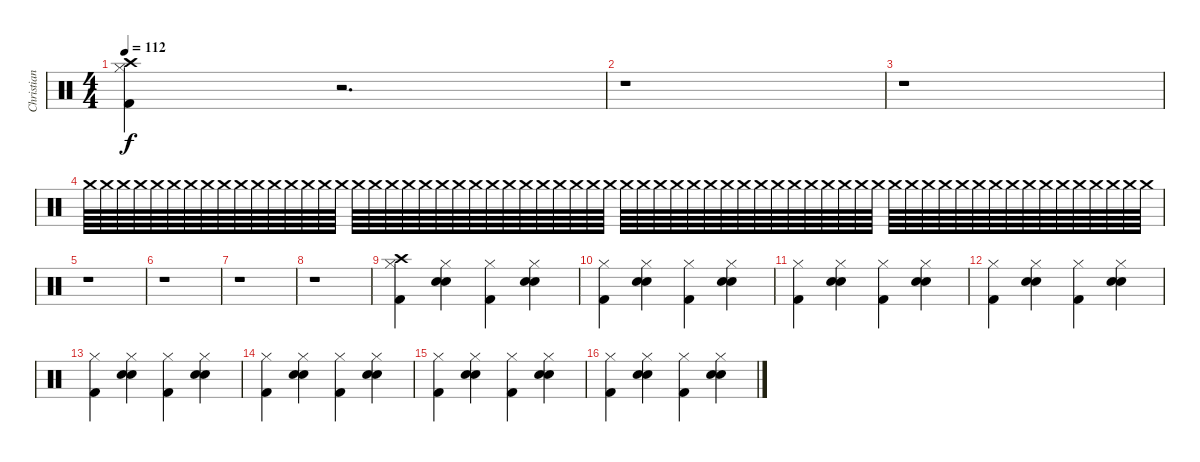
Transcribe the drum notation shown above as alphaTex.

\track ("Christian Paredes" "Christian ") {instrument percussion}
\staff {score}
\articulation defaults
\ts (4 4)
\tempo 112
\clef neutral
\ks c
("Hi-Hat (closed)" "Crash high (hit)" "Kick (hit) 2").4{dy f volume 13} r.2{d} |
r.1 |
r.1{volume 0} |
"Crash medium (hit)".64{volume 13} "Crash medium (hit)".64 "Crash medium (hit)".64 "Crash medium (hit)".64 "Crash medium (hit)".64 "Crash medium (hit)".64 "Crash medium (hit)".64 "Crash medium (hit)".64 "Crash medium (hit)".64 "Crash medium (hit)".64 "Crash medium (hit)".64 "Crash medium (hit)".64 "Crash medium (hit)".64 "Crash medium (hit)".64 "Crash medium (hit)".64 "Crash medium (hit)".64 "Crash medium (hit)".64 "Crash medium (hit)".64 "Crash medium (hit)".64 "Crash medium (hit)".64 "Crash medium (hit)".64 "Crash medium (hit)".64 "Crash medium (hit)".64 "Crash medium (hit)".64 "Crash medium (hit)".64 "Crash medium (hit)".64 "Crash medium (hit)".64 "Crash medium (hit)".64 "Crash medium (hit)".64 "Crash medium (hit)".64 "Crash medium (hit)".64 "Crash medium (hit)".64 "Crash medium (hit)".64 "Crash medium (hit)".64 "Crash medium (hit)".64 "Crash medium (hit)".64 "Crash medium (hit)".64 "Crash medium (hit)".64 "Crash medium (hit)".64 "Crash medium (hit)".64 "Crash medium (hit)".64 "Crash medium (hit)".64 "Crash medium (hit)".64 "Crash medium (hit)".64 "Crash medium (hit)".64 "Crash medium (hit)".64 "Crash medium (hit)".64 "Crash medium (hit)".64 "Crash medium (hit)".64 "Crash medium (hit)".64 "Crash medium (hit)".64 "Crash medium (hit)".64 "Crash medium (hit)".64 "Crash medium (hit)".64 "Crash medium (hit)".64 "Crash medium (hit)".64 "Crash medium (hit)".64 "Crash medium (hit)".64 "Crash medium (hit)".64 "Crash medium (hit)".64 "Crash medium (hit)".64 "Crash medium (hit)".64 "Crash medium (hit)".64 "Crash medium (hit)".64 |
r.1 |
r.1 |
r.1 |
r.1 |
("Hi-Hat (closed)" "Crash high (hit)" "Kick (hit) 2").4{volume 13} ("Hi-Hat (closed)" "Electric Snare (hit)" "Hand Clap (hit)").4 ("Hi-Hat (closed)" "Kick (hit) 2").4 ("Hi-Hat (closed)" "Electric Snare (hit)" "Hand Clap (hit)").4 |
("Hi-Hat (closed)" "Kick (hit) 2").4 ("Hi-Hat (closed)" "Electric Snare (hit)" "Hand Clap (hit)").4 ("Hi-Hat (closed)" "Kick (hit) 2").4 ("Hi-Hat (closed)" "Electric Snare (hit)" "Hand Clap (hit)").4 |
("Hi-Hat (closed)" "Kick (hit) 2").4 ("Hi-Hat (closed)" "Electric Snare (hit)" "Hand Clap (hit)").4 ("Hi-Hat (closed)" "Kick (hit) 2").4 ("Hi-Hat (closed)" "Electric Snare (hit)" "Hand Clap (hit)").4 |
("Hi-Hat (closed)" "Kick (hit) 2").4 ("Hi-Hat (closed)" "Electric Snare (hit)" "Hand Clap (hit)").4 ("Hi-Hat (closed)" "Kick (hit) 2").4 ("Hi-Hat (closed)" "Electric Snare (hit)" "Hand Clap (hit)").4 |
("Hi-Hat (closed)" "Kick (hit) 2").4 ("Hi-Hat (closed)" "Electric Snare (hit)" "Hand Clap (hit)").4 ("Hi-Hat (closed)" "Kick (hit) 2").4 ("Hi-Hat (closed)" "Electric Snare (hit)" "Hand Clap (hit)").4 |
("Hi-Hat (closed)" "Kick (hit) 2").4 ("Hi-Hat (closed)" "Electric Snare (hit)" "Hand Clap (hit)").4 ("Hi-Hat (closed)" "Kick (hit) 2").4 ("Hi-Hat (closed)" "Electric Snare (hit)" "Hand Clap (hit)").4 |
("Hi-Hat (closed)" "Kick (hit) 2").4 ("Hi-Hat (closed)" "Electric Snare (hit)" "Hand Clap (hit)").4 ("Hi-Hat (closed)" "Kick (hit) 2").4 ("Hi-Hat (closed)" "Electric Snare (hit)" "Hand Clap (hit)").4 |
("Hi-Hat (closed)" "Kick (hit) 2").4 ("Hi-Hat (closed)" "Electric Snare (hit)" "Hand Clap (hit)").4 ("Hi-Hat (closed)" "Kick (hit) 2").4 ("Hi-Hat (closed)" "Electric Snare (hit)" "Hand Clap (hit)").4
